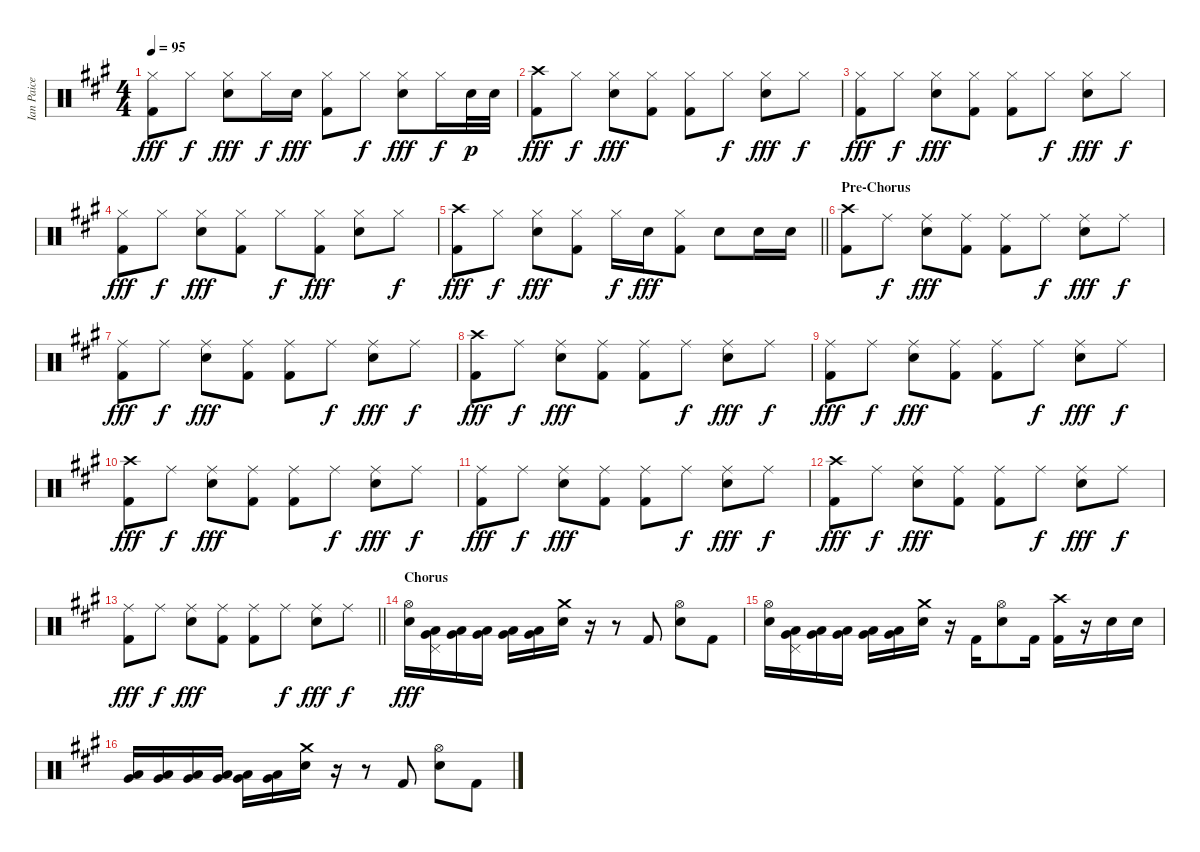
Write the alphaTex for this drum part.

\track ("Ian Paice" "Ian Paice") {instrument percussion}
\staff {score}
\articulation defaults
\ts (4 4)
\tempo 95
\clef neutral
\ks f#minor
("Hi-Hat (closed)" "Kick (hit) 2").8{dy fff} "Hi-Hat (closed)".8{dy f} ("Hi-Hat (closed)" "Snare (hit) 2").8{dy fff} "Hi-Hat (closed)".16{dy f} "Snare (hit) 2".16{dy fff} ("Hi-Hat (closed)" "Kick (hit) 2").8 "Hi-Hat (closed)".8{dy f} ("Hi-Hat (closed)" "Snare (hit) 2").8{dy fff} "Hi-Hat (closed)".16{dy f} "Snare (hit) 2".32{dy p} "Snare (hit) 2".32 |
("Crash high (hit)" "Kick (hit) 2").8{dy fff} "Hi-Hat (closed)".8{dy f} ("Hi-Hat (closed)" "Snare (hit) 2").8{dy fff} ("Hi-Hat (closed)" "Kick (hit) 2").8 ("Hi-Hat (closed)" "Kick (hit) 2").8 "Hi-Hat (closed)".8{dy f} ("Hi-Hat (closed)" "Snare (hit) 2").8{dy fff} "Hi-Hat (closed)".8{dy f} |
("Hi-Hat (closed)" "Kick (hit) 2").8{dy fff} "Hi-Hat (closed)".8{dy f} ("Hi-Hat (closed)" "Snare (hit) 2").8{dy fff} ("Hi-Hat (closed)" "Kick (hit) 2").8 ("Hi-Hat (closed)" "Kick (hit) 2").8 "Hi-Hat (closed)".8{dy f} ("Hi-Hat (closed)" "Snare (hit) 2").8{dy fff} "Hi-Hat (closed)".8{dy f} |
("Hi-Hat (closed)" "Kick (hit) 2").8{dy fff} "Hi-Hat (closed)".8{dy f} ("Hi-Hat (closed)" "Snare (hit) 2").8{dy fff} ("Hi-Hat (closed)" "Kick (hit) 2").8 "Hi-Hat (closed)".8{dy f} ("Hi-Hat (closed)" "Kick (hit) 2").8{dy fff} ("Hi-Hat (closed)" "Snare (hit) 2").8 "Hi-Hat (closed)".8{dy f} |
\barLineRight lightlight
("Crash high (hit)" "Kick (hit) 2").8{dy fff} "Hi-Hat (closed)".8{dy f} ("Hi-Hat (closed)" "Snare (hit) 2").8{dy fff} ("Hi-Hat (closed)" "Kick (hit) 2").8 "Hi-Hat (closed)".16{dy f} "Snare (hit) 2".16{dy fff} ("Hi-Hat (closed)" "Kick (hit) 2").8 "Snare (hit) 2".8 "Snare (hit) 2".16 "Snare (hit) 2".16 |
\section ("" "Pre-Chorus")
("Crash high (hit)" "Kick (hit) 2").8 "Ride (middle)".8{dy f} ("Ride (middle)" "Snare (hit) 2").8{dy fff} ("Ride (middle)" "Kick (hit) 2").8 ("Ride (middle)" "Kick (hit) 2").8 "Ride (middle)".8{dy f} ("Ride (middle)" "Snare (hit) 2").8{dy fff} "Ride (middle)".8{dy f} |
("Ride (middle)" "Kick (hit) 2").8{dy fff} "Ride (middle)".8{dy f} ("Ride (middle)" "Snare (hit) 2").8{dy fff} ("Ride (middle)" "Kick (hit) 2").8 ("Ride (middle)" "Kick (hit) 2").8 "Ride (middle)".8{dy f} ("Ride (middle)" "Snare (hit) 2").8{dy fff} "Ride (middle)".8{dy f} |
("Crash high (hit)" "Kick (hit) 2").8{dy fff} "Ride (middle)".8{dy f} ("Ride (middle)" "Snare (hit) 2").8{dy fff} ("Ride (middle)" "Kick (hit) 2").8 ("Ride (middle)" "Kick (hit) 2").8 "Ride (middle)".8{dy f} ("Ride (middle)" "Snare (hit) 2").8{dy fff} "Ride (middle)".8{dy f} |
("Ride (middle)" "Kick (hit) 2").8{dy fff} "Ride (middle)".8{dy f} ("Ride (middle)" "Snare (hit) 2").8{dy fff} ("Ride (middle)" "Kick (hit) 2").8 ("Ride (middle)" "Kick (hit) 2").8 "Ride (middle)".8{dy f} ("Ride (middle)" "Snare (hit) 2").8{dy fff} "Ride (middle)".8{dy f} |
("Crash high (hit)" "Kick (hit) 2").8{dy fff} "Ride (middle)".8{dy f} ("Ride (middle)" "Snare (hit) 2").8{dy fff} ("Ride (middle)" "Kick (hit) 2").8 ("Ride (middle)" "Kick (hit) 2").8 "Ride (middle)".8{dy f} ("Ride (middle)" "Snare (hit) 2").8{dy fff} "Ride (middle)".8{dy f} |
("Ride (middle)" "Kick (hit) 2").8{dy fff} "Ride (middle)".8{dy f} ("Ride (middle)" "Snare (hit) 2").8{dy fff} ("Ride (middle)" "Kick (hit) 2").8 ("Ride (middle)" "Kick (hit) 2").8 "Ride (middle)".8{dy f} ("Ride (middle)" "Snare (hit) 2").8{dy fff} "Ride (middle)".8{dy f} |
("Crash high (hit)" "Kick (hit) 2").8{dy fff} "Ride (middle)".8{dy f} ("Ride (middle)" "Snare (hit) 2").8{dy fff} ("Ride (middle)" "Kick (hit) 2").8 ("Ride (middle)" "Kick (hit) 2").8 "Ride (middle)".8{dy f} ("Ride (middle)" "Snare (hit) 2").8{dy fff} "Ride (middle)".8{dy f} |
\barLineRight lightlight
("Ride (middle)" "Kick (hit) 2").8{dy fff} "Ride (middle)".8{dy f} ("Ride (middle)" "Snare (hit) 2").8{dy fff} ("Ride (middle)" "Kick (hit) 2").8 ("Ride (middle)" "Kick (hit) 2").8 "Ride (middle)".8{dy f} ("Ride (middle)" "Snare (hit) 2").8{dy fff} "Ride (middle)".8{dy f} |
\section ("" "Chorus")
("Hi-Hat (open)" "Snare (hit) 2").16{dy fff} ("Pedal Hi-Hat (hit)" "Low Floor Tom (hit)" "Very Low Tom (hit)").16 ("Low Floor Tom (hit)" "Very Low Tom (hit)").16 ("Low Floor Tom (hit)" "Very Low Tom (hit)").16 ("Low Floor Tom (hit)" "Very Low Tom (hit)").16 ("Low Floor Tom (hit)" "Very Low Tom (hit)").16 ("Crash medium (hit)" "Snare (hit) 2").16 r.16 r.8 "Kick (hit) 2".8 ("Hi-Hat (open)" "Snare (hit) 2").8 "Kick (hit) 2".8 |
("Hi-Hat (open)" "Snare (hit) 2").16 ("Pedal Hi-Hat (hit)" "Low Floor Tom (hit)" "Very Low Tom (hit)").16 ("Low Floor Tom (hit)" "Very Low Tom (hit)").16 ("Low Floor Tom (hit)" "Very Low Tom (hit)").16 ("Low Floor Tom (hit)" "Very Low Tom (hit)").16 ("Low Floor Tom (hit)" "Very Low Tom (hit)").16 ("Crash medium (hit)" "Snare (hit) 2").16 r.16 "Kick (hit) 2".16 ("Hi-Hat (open)" "Snare (hit) 2").8 "Kick (hit) 2".16 ("Crash high (hit)" "Kick (hit) 2").16 r.16 "Snare (hit) 2".16 "Snare (hit) 2".16 |
("Low Floor Tom (hit)" "Very Low Tom (hit)").16 ("Low Floor Tom (hit)" "Very Low Tom (hit)").16 ("Low Floor Tom (hit)" "Very Low Tom (hit)").16 ("Low Floor Tom (hit)" "Very Low Tom (hit)").16 ("Low Floor Tom (hit)" "Very Low Tom (hit)").16 ("Low Floor Tom (hit)" "Very Low Tom (hit)").16 ("Crash medium (hit)" "Snare (hit) 2").16 r.16 r.8 "Kick (hit) 2".8 ("Hi-Hat (open)" "Snare (hit) 2").8 "Kick (hit) 2".8
